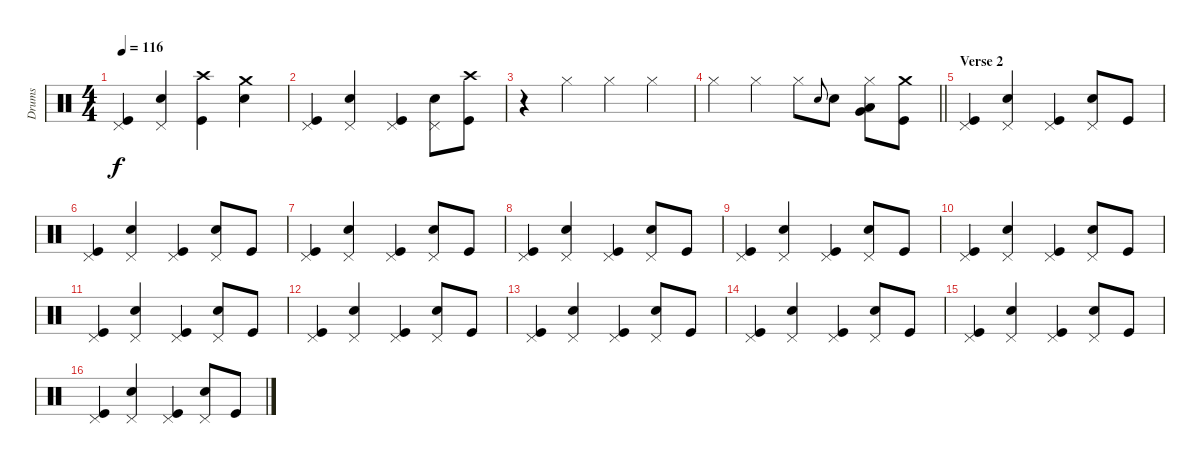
\track ("Drums" "Drums") {instrument percussion}
\staff {score}
\articulation defaults
\ts (4 4)
\tempo 116
\clef neutral
\ks c
("Pedal Hi-Hat (hit)" "Kick (hit)").4{dy f} ("Pedal Hi-Hat (hit)" "Electric Snare (hit)").4 ("Crash high (hit)" "Kick (hit)").4 ("Crash medium (hit)" "Electric Snare (hit)").4 |
("Pedal Hi-Hat (hit)" "Kick (hit)").4 ("Pedal Hi-Hat (hit)" "Electric Snare (hit)").4 ("Pedal Hi-Hat (hit)" "Kick (hit)").4 ("Pedal Hi-Hat (hit)" "Electric Snare (hit)").8 ("Crash high (hit)" "Kick (hit)").8 |
r.4 "Hi-Hat (closed)".4 "Hi-Hat (closed)".4 "Hi-Hat (closed)".4 |
\barLineRight lightlight "Hi-Hat (closed)".4 "Hi-Hat (closed)".4 "Hi-Hat (closed)".8 "Electric Snare (hit)".8{gr onbeat} "Electric Snare (hit)".8
("Hi-Hat (closed)" "Very Low Tom (hit)" "Low Floor Tom (hit)").8 ("Crash medium (hit)" "Kick (hit)").8 |
\section ("" "Verse 2")
("Pedal Hi-Hat (hit)" "Kick (hit)").4 ("Pedal Hi-Hat (hit)" "Electric Snare (hit)").4 ("Pedal Hi-Hat (hit)" "Kick (hit)").4 ("Pedal Hi-Hat (hit)" "Electric Snare (hit)").8 "Kick (hit)".8 |
("Pedal Hi-Hat (hit)" "Kick (hit)").4 ("Pedal Hi-Hat (hit)" "Electric Snare (hit)").4 ("Pedal Hi-Hat (hit)" "Kick (hit)").4 ("Pedal Hi-Hat (hit)" "Electric Snare (hit)").8 "Kick (hit)".8 |
("Pedal Hi-Hat (hit)" "Kick (hit)").4 ("Pedal Hi-Hat (hit)" "Electric Snare (hit)").4 ("Pedal Hi-Hat (hit)" "Kick (hit)").4 ("Pedal Hi-Hat (hit)" "Electric Snare (hit)").8 "Kick (hit)".8 |
("Pedal Hi-Hat (hit)" "Kick (hit)").4 ("Pedal Hi-Hat (hit)" "Electric Snare (hit)").4 ("Pedal Hi-Hat (hit)" "Kick (hit)").4 ("Pedal Hi-Hat (hit)" "Electric Snare (hit)").8 "Kick (hit)".8 |
("Pedal Hi-Hat (hit)" "Kick (hit)").4 ("Pedal Hi-Hat (hit)" "Electric Snare (hit)").4 ("Pedal Hi-Hat (hit)" "Kick (hit)").4 ("Pedal Hi-Hat (hit)" "Electric Snare (hit)").8 "Kick (hit)".8 |
("Pedal Hi-Hat (hit)" "Kick (hit)").4 ("Pedal Hi-Hat (hit)" "Electric Snare (hit)").4 ("Pedal Hi-Hat (hit)" "Kick (hit)").4 ("Pedal Hi-Hat (hit)" "Electric Snare (hit)").8 "Kick (hit)".8 |
("Pedal Hi-Hat (hit)" "Kick (hit)").4 ("Pedal Hi-Hat (hit)" "Electric Snare (hit)").4 ("Pedal Hi-Hat (hit)" "Kick (hit)").4 ("Pedal Hi-Hat (hit)" "Electric Snare (hit)").8 "Kick (hit)".8 |
("Pedal Hi-Hat (hit)" "Kick (hit)").4 ("Pedal Hi-Hat (hit)" "Electric Snare (hit)").4 ("Pedal Hi-Hat (hit)" "Kick (hit)").4 ("Pedal Hi-Hat (hit)" "Electric Snare (hit)").8 "Kick (hit)".8 |
("Pedal Hi-Hat (hit)" "Kick (hit)").4 ("Pedal Hi-Hat (hit)" "Electric Snare (hit)").4 ("Pedal Hi-Hat (hit)" "Kick (hit)").4 ("Pedal Hi-Hat (hit)" "Electric Snare (hit)").8 "Kick (hit)".8 |
("Pedal Hi-Hat (hit)" "Kick (hit)").4 ("Pedal Hi-Hat (hit)" "Electric Snare (hit)").4 ("Pedal Hi-Hat (hit)" "Kick (hit)").4 ("Pedal Hi-Hat (hit)" "Electric Snare (hit)").8 "Kick (hit)".8 |
("Pedal Hi-Hat (hit)" "Kick (hit)").4 ("Pedal Hi-Hat (hit)" "Electric Snare (hit)").4 ("Pedal Hi-Hat (hit)" "Kick (hit)").4 ("Pedal Hi-Hat (hit)" "Electric Snare (hit)").8 "Kick (hit)".8 |
("Pedal Hi-Hat (hit)" "Kick (hit)").4 ("Pedal Hi-Hat (hit)" "Electric Snare (hit)").4 ("Pedal Hi-Hat (hit)" "Kick (hit)").4 ("Pedal Hi-Hat (hit)" "Electric Snare (hit)").8 "Kick (hit)".8
